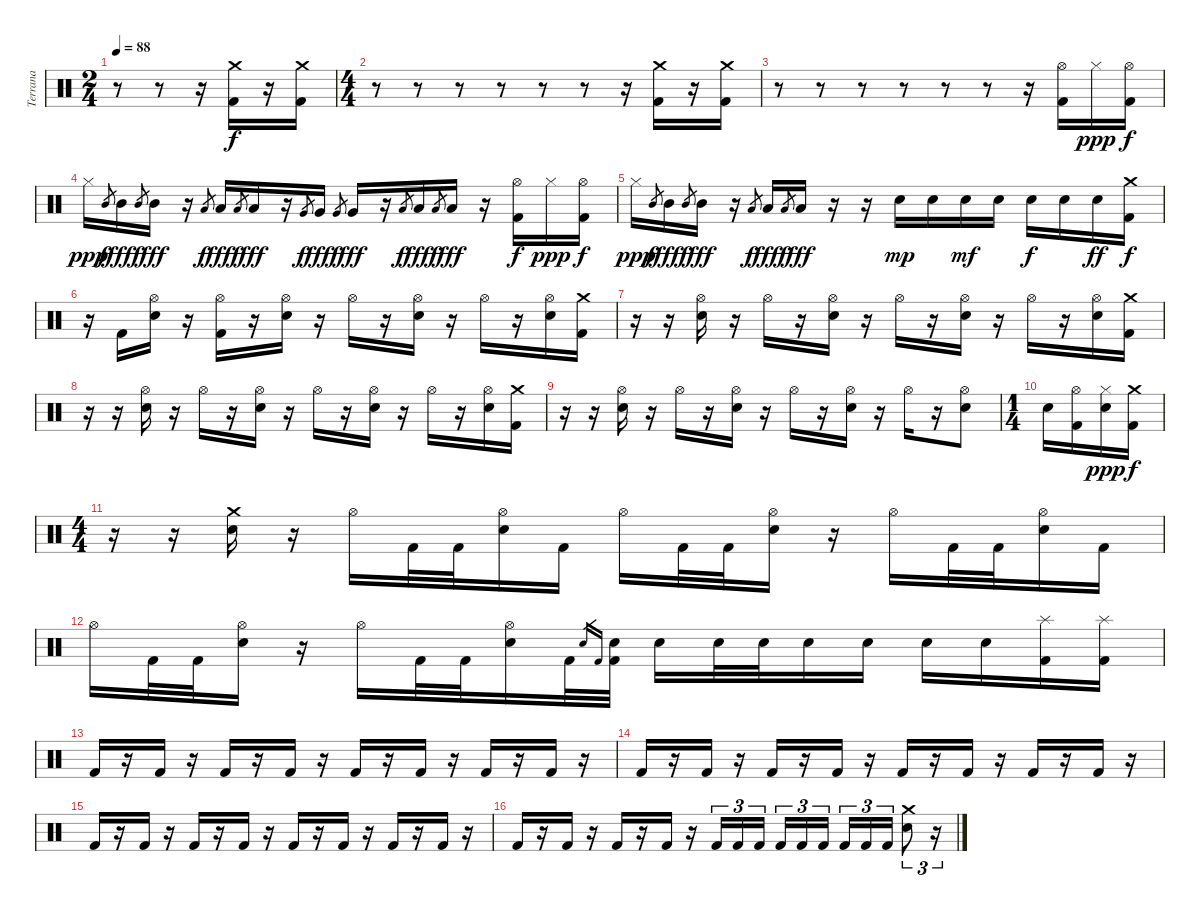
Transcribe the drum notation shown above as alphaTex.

\track ("Terrana" "Terrana") {instrument percussion}
\staff {score}
\articulation defaults
\ts (2 4)
\tempo 88
\clef neutral
\ks c
r.8{dy f} r.8 r.16 ("Crash medium (hit)" "Kick (hit) 2").16 r.16 ("Crash medium (hit)" "Kick (hit) 2").16 |
\ts (4 4)
r.8 r.8 r.8 r.8 r.8 r.8 r.16 ("Crash medium (hit)" "Kick (hit) 2").16 r.16 ("Crash medium (hit)" "Kick (hit) 2").16 |
r.8 r.8 r.8 r.8 r.8 r.8 r.16 ("Hi-Hat (open)" "Kick (hit) 2").16 "Hi-Hat (closed)".16{dy ppp} ("Hi-Hat (open)" "Kick (hit) 2").16{dy f} |
"Hi-Hat (closed)".16{dy ppp} "Mid Tom (hit)".8{gr dy f} "Mid Tom (hit)".16{dy fff} "Mid Tom (hit)".8{gr dy f} "Mid Tom (hit)".16{dy fff} r.16 "Low Tom (hit)".8{gr dy f} "Low Tom (hit)".16{dy fff} "Low Tom (hit)".8{gr dy f} "Low Tom (hit)".16{dy fff} r.16 "Very Low Tom (hit)".8{gr dy f} "Very Low Tom (hit)".16{dy fff} "Very Low Tom (hit)".8{gr dy f} "Very Low Tom (hit)".16{dy fff} r.16 "Low Floor Tom (hit)".8{gr dy f} "Low Floor Tom (hit)".16{dy fff} "Low Floor Tom (hit)".8{gr dy f} "Low Floor Tom (hit)".16{dy fff} r.16 ("Hi-Hat (open)" "Kick (hit) 2").16{dy f} "Hi-Hat (closed)".16{dy ppp} ("Hi-Hat (open)" "Kick (hit) 2").16{dy f} |
"Hi-Hat (closed)".16{dy ppp} "Mid Tom (hit)".8{gr dy f} "Mid Tom (hit)".16{dy fff} "Mid Tom (hit)".8{gr dy f} "Mid Tom (hit)".16{dy fff} r.16 "Low Tom (hit)".8{gr dy f} "Low Tom (hit)".16{dy fff} "Low Tom (hit)".8{gr dy f} "Low Tom (hit)".16{dy fff} r.16 r.16 "Electric Snare (hit)".16{dy mp} "Electric Snare (hit)".16 "Electric Snare (hit)".16{dy mf} "Electric Snare (hit)".16 "Electric Snare (hit)".16{dy f} "Electric Snare (hit)".16 "Electric Snare (hit)".16{dy ff} ("Crash medium (hit)" "Kick (hit) 2").16{dy f} |
r.16 "Kick (hit) 2".16 ("Hi-Hat (open)" "Electric Snare (hit)").16 r.16 ("Hi-Hat (open)" "Kick (hit) 2").16 r.16 ("Hi-Hat (open)" "Electric Snare (hit)").16 r.16 "Hi-Hat (open)".16 r.16 ("Hi-Hat (open)" "Electric Snare (hit)").16 r.16 "Hi-Hat (open)".16 r.16 ("Hi-Hat (open)" "Electric Snare (hit)").16 ("Crash medium (hit)" "Kick (hit) 2").16 |
r.16 r.16 ("Hi-Hat (open)" "Electric Snare (hit)").16 r.16 "Hi-Hat (open)".16 r.16 ("Hi-Hat (open)" "Electric Snare (hit)").16 r.16 "Hi-Hat (open)".16 r.16 ("Hi-Hat (open)" "Electric Snare (hit)").16 r.16 "Hi-Hat (open)".16 r.16 ("Hi-Hat (open)" "Electric Snare (hit)").16 ("Crash medium (hit)" "Kick (hit) 2").16 |
r.16 r.16 ("Hi-Hat (open)" "Electric Snare (hit)").16 r.16 "Hi-Hat (open)".16 r.16 ("Hi-Hat (open)" "Electric Snare (hit)").16 r.16 "Hi-Hat (open)".16 r.16 ("Hi-Hat (open)" "Electric Snare (hit)").16 r.16 "Hi-Hat (open)".16 r.16 ("Hi-Hat (open)" "Electric Snare (hit)").16 ("Crash medium (hit)" "Kick (hit) 2").16 |
r.16 r.16 ("Hi-Hat (open)" "Electric Snare (hit)").16 r.16 "Hi-Hat (open)".16 r.16 ("Hi-Hat (open)" "Electric Snare (hit)").16 r.16 "Hi-Hat (open)".16 r.16 ("Hi-Hat (open)" "Electric Snare (hit)").16 r.16 "Hi-Hat (open)".16 r.16 ("Hi-Hat (open)" "Electric Snare (hit)").8 |
\ts (1 4)
"Electric Snare (hit)".16 ("Hi-Hat (open)" "Kick (hit) 2").16 ("Hi-Hat (closed)" "Electric Snare (hit)").16{dy ppp} ("Crash medium (hit)" "Kick (hit) 2").16{dy f} |
\ts (4 4)
r.16 r.16 ("Crash medium (hit)" "Electric Snare (hit)").16 r.16 "Hi-Hat (open)".16 "Kick (hit) 2".32 "Kick (hit) 2".32 ("Hi-Hat (open)" "Electric Snare (hit)").16 "Kick (hit) 2".16 "Hi-Hat (open)".16 "Kick (hit) 2".32 "Kick (hit) 2".32 ("Hi-Hat (open)" "Electric Snare (hit)").16 r.16 "Hi-Hat (open)".16 "Kick (hit) 2".32 "Kick (hit) 2".32 ("Hi-Hat (open)" "Electric Snare (hit)").16 "Kick (hit) 2".16 |
"Hi-Hat (open)".16 "Kick (hit) 2".32 "Kick (hit) 2".32 ("Hi-Hat (open)" "Electric Snare (hit)").16 r.16 "Hi-Hat (open)".16 "Kick (hit) 2".32 "Kick (hit) 2".32 ("Hi-Hat (open)" "Electric Snare (hit)").16 "Kick (hit) 2".32 "Electric Snare (hit)".16{gr} "Kick (hit) 2".16{gr} ("Electric Snare (hit)" "Kick (hit) 2").32 "Electric Snare (hit)".16 "Electric Snare (hit)".32 "Electric Snare (hit)".32 "Electric Snare (hit)".16 "Electric Snare (hit)".16 "Electric Snare (hit)".16 "Electric Snare (hit)".16 ("Splash (hit)" "Kick (hit) 2").16 ("Splash (hit)" "Kick (hit) 2").16 |
"Kick (hit) 2".16 r.16 "Kick (hit) 2".16 r.16 "Kick (hit) 2".16 r.16 "Kick (hit) 2".16 r.16 "Kick (hit) 2".16 r.16 "Kick (hit) 2".16 r.16 "Kick (hit) 2".16 r.16 "Kick (hit) 2".16 r.16 |
"Kick (hit) 2".16 r.16 "Kick (hit) 2".16 r.16 "Kick (hit) 2".16 r.16 "Kick (hit) 2".16 r.16 "Kick (hit) 2".16 r.16 "Kick (hit) 2".16 r.16 "Kick (hit) 2".16 r.16 "Kick (hit) 2".16 r.16 |
"Kick (hit) 2".16 r.16 "Kick (hit) 2".16 r.16 "Kick (hit) 2".16 r.16 "Kick (hit) 2".16 r.16 "Kick (hit) 2".16 r.16 "Kick (hit) 2".16 r.16 "Kick (hit) 2".16 r.16 "Kick (hit) 2".16 r.16 |
"Kick (hit) 2".16 r.16 "Kick (hit) 2".16 r.16 "Kick (hit) 2".16 r.16 "Kick (hit) 2".16 r.16 "Kick (hit) 2".16{tu (3 2)} "Kick (hit) 2".16{tu (3 2)} "Kick (hit) 2".16{tu (3 2)} "Kick (hit) 2".16{tu (3 2)} "Kick (hit) 2".16{tu (3 2)} "Kick (hit) 2".16{tu (3 2)} "Kick (hit) 2".16{tu (3 2)} "Kick (hit) 2".16{tu (3 2)} "Kick (hit) 2".16{tu (3 2)} ("Crash medium (hit)" "Electric Snare (hit)").8{tu (3 2)} r.16{tu (3 2)}
